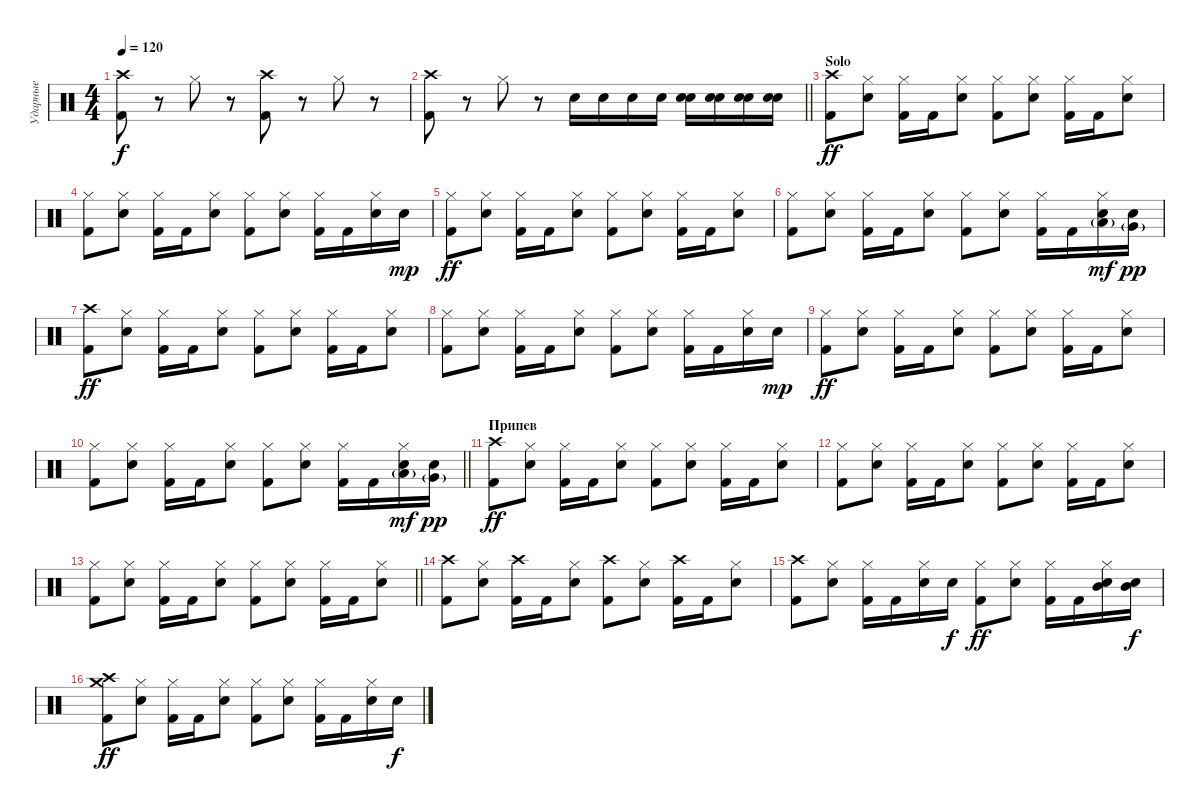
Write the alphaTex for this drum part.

\track ("Ударные" "Ударные") {instrument percussion}
\staff {score}
\articulation defaults
\ts (4 4)
\tempo 120
\clef neutral
\ks c
("Crash high (hit)" "Kick (hit) 2").8{dy f} r.8 "Hi-Hat (closed)".8 r.8 ("Crash high (hit)" "Kick (hit) 2").8 r.8 "Hi-Hat (closed)".8 r.8 |
\barLineRight lightlight
("Kick (hit) 2" "Crash high (hit)").8 r.8 "Hi-Hat (closed)".8 r.8 "Electric Snare (hit)".16 "Electric Snare (hit)".16 "Electric Snare (hit)".16 "Electric Snare (hit)".16 ("Electric Snare (hit)" "Electric Snare (hit)").16 ("Electric Snare (hit)" "Electric Snare (hit)").16 ("Electric Snare (hit)" "Electric Snare (hit)").16 ("Electric Snare (hit)" "Electric Snare (hit)").16 |
\section ("" "Solo")
("Crash high (hit)" "Kick (hit) 2").8{dy ff} ("Hi-Hat (closed)" "Electric Snare (hit)").8 ("Hi-Hat (closed)" "Kick (hit) 2").16 "Kick (hit) 2".16 ("Hi-Hat (closed)" "Electric Snare (hit)").8 ("Hi-Hat (closed)" "Kick (hit) 2").8 ("Hi-Hat (closed)" "Electric Snare (hit)").8 ("Hi-Hat (closed)" "Kick (hit) 2").16 "Kick (hit) 2".16 ("Hi-Hat (closed)" "Electric Snare (hit)").8 |
("Hi-Hat (closed)" "Kick (hit) 2").8 ("Hi-Hat (closed)" "Electric Snare (hit)").8 ("Hi-Hat (closed)" "Kick (hit) 2").16 "Kick (hit) 2".16 ("Hi-Hat (closed)" "Electric Snare (hit)").8 ("Hi-Hat (closed)" "Kick (hit) 2").8 ("Hi-Hat (closed)" "Electric Snare (hit)").8 ("Hi-Hat (closed)" "Kick (hit) 2").16 "Kick (hit) 2".16 ("Hi-Hat (closed)" "Electric Snare (hit)").16 "Electric Snare (hit)".16{dy mp} |
("Hi-Hat (closed)" "Kick (hit) 2").8{dy ff} ("Hi-Hat (closed)" "Electric Snare (hit)").8 ("Hi-Hat (closed)" "Kick (hit) 2").16 "Kick (hit) 2".16 ("Hi-Hat (closed)" "Electric Snare (hit)").8 ("Hi-Hat (closed)" "Kick (hit) 2").8 ("Hi-Hat (closed)" "Electric Snare (hit)").8 ("Hi-Hat (closed)" "Kick (hit) 2").16 "Kick (hit) 2".16 ("Hi-Hat (closed)" "Electric Snare (hit)").8 |
("Hi-Hat (closed)" "Kick (hit) 2").8 ("Hi-Hat (closed)" "Electric Snare (hit)").8 ("Hi-Hat (closed)" "Kick (hit) 2").16 "Kick (hit) 2".16 ("Hi-Hat (closed)" "Electric Snare (hit)").8 ("Hi-Hat (closed)" "Kick (hit) 2").8 ("Hi-Hat (closed)" "Electric Snare (hit)").8 ("Hi-Hat (closed)" "Kick (hit) 2").16 "Kick (hit) 2".16 ("Hi-Hat (closed)" "Electric Snare (hit)" "Low Floor Tom (hit)"{g}).16{dy mf} ("Electric Snare (hit)" "Very Low Tom (hit)"{g}).16{dy pp} |
("Crash high (hit)" "Kick (hit) 2").8{dy ff} ("Hi-Hat (closed)" "Electric Snare (hit)").8 ("Hi-Hat (closed)" "Kick (hit) 2").16 "Kick (hit) 2".16 ("Hi-Hat (closed)" "Electric Snare (hit)").8 ("Hi-Hat (closed)" "Kick (hit) 2").8 ("Hi-Hat (closed)" "Electric Snare (hit)").8 ("Hi-Hat (closed)" "Kick (hit) 2").16 "Kick (hit) 2".16 ("Hi-Hat (closed)" "Electric Snare (hit)").8 |
("Hi-Hat (closed)" "Kick (hit) 2").8 ("Hi-Hat (closed)" "Electric Snare (hit)").8 ("Hi-Hat (closed)" "Kick (hit) 2").16 "Kick (hit) 2".16 ("Hi-Hat (closed)" "Electric Snare (hit)").8 ("Hi-Hat (closed)" "Kick (hit) 2").8 ("Hi-Hat (closed)" "Electric Snare (hit)").8 ("Hi-Hat (closed)" "Kick (hit) 2").16 "Kick (hit) 2".16 ("Hi-Hat (closed)" "Electric Snare (hit)").16 "Electric Snare (hit)".16{dy mp} |
("Hi-Hat (closed)" "Kick (hit) 2").8{dy ff} ("Hi-Hat (closed)" "Electric Snare (hit)").8 ("Hi-Hat (closed)" "Kick (hit) 2").16 "Kick (hit) 2".16 ("Hi-Hat (closed)" "Electric Snare (hit)").8 ("Hi-Hat (closed)" "Kick (hit) 2").8 ("Hi-Hat (closed)" "Electric Snare (hit)").8 ("Hi-Hat (closed)" "Kick (hit) 2").16 "Kick (hit) 2".16 ("Hi-Hat (closed)" "Electric Snare (hit)").8 |
\barLineRight lightlight
("Hi-Hat (closed)" "Kick (hit) 2").8 ("Hi-Hat (closed)" "Electric Snare (hit)").8 ("Hi-Hat (closed)" "Kick (hit) 2").16 "Kick (hit) 2".16 ("Hi-Hat (closed)" "Electric Snare (hit)").8 ("Hi-Hat (closed)" "Kick (hit) 2").8 ("Hi-Hat (closed)" "Electric Snare (hit)").8 ("Hi-Hat (closed)" "Kick (hit) 2").16 "Kick (hit) 2".16 ("Hi-Hat (closed)" "Electric Snare (hit)" "Low Floor Tom (hit)"{g}).16{dy mf} ("Electric Snare (hit)" "Very Low Tom (hit)"{g}).16{dy pp} |
\section ("" "Припев")
("Crash high (hit)" "Kick (hit) 2").8{dy ff} ("Hi-Hat (closed)" "Electric Snare (hit)").8 ("Hi-Hat (closed)" "Kick (hit) 2").16 "Kick (hit) 2".16 ("Hi-Hat (closed)" "Electric Snare (hit)").8 ("Hi-Hat (closed)" "Kick (hit) 2").8 ("Hi-Hat (closed)" "Electric Snare (hit)").8 ("Hi-Hat (closed)" "Kick (hit) 2").16 "Kick (hit) 2".16 ("Hi-Hat (closed)" "Electric Snare (hit)").8 |
("Hi-Hat (closed)" "Kick (hit) 2").8 ("Hi-Hat (closed)" "Electric Snare (hit)").8 ("Hi-Hat (closed)" "Kick (hit) 2").16 "Kick (hit) 2".16 ("Hi-Hat (closed)" "Electric Snare (hit)").8 ("Hi-Hat (closed)" "Kick (hit) 2").8 ("Hi-Hat (closed)" "Electric Snare (hit)").8 ("Hi-Hat (closed)" "Kick (hit) 2").16 "Kick (hit) 2".16 ("Hi-Hat (closed)" "Electric Snare (hit)").8 |
\barLineRight lightlight
("Hi-Hat (closed)" "Kick (hit) 2").8 ("Hi-Hat (closed)" "Electric Snare (hit)").8 ("Hi-Hat (closed)" "Kick (hit) 2").16 "Kick (hit) 2".16 ("Hi-Hat (closed)" "Electric Snare (hit)").8 ("Hi-Hat (closed)" "Kick (hit) 2").8 ("Hi-Hat (closed)" "Electric Snare (hit)").8 ("Hi-Hat (closed)" "Kick (hit) 2").16 "Kick (hit) 2".16 ("Hi-Hat (closed)" "Electric Snare (hit)").8 |
("Crash high (hit)" "Kick (hit) 2").8 ("Hi-Hat (closed)" "Electric Snare (hit)").8 ("Crash high (hit)" "Kick (hit) 2").16 "Kick (hit) 2".16 ("Hi-Hat (closed)" "Electric Snare (hit)").8 ("Crash high (hit)" "Kick (hit) 2").8 ("Hi-Hat (closed)" "Electric Snare (hit)").8 ("Crash high (hit)" "Kick (hit) 2").16 "Kick (hit) 2".16 ("Hi-Hat (closed)" "Electric Snare (hit)").8 |
("Crash high (hit)" "Kick (hit) 2").8 ("Hi-Hat (closed)" "Electric Snare (hit)").8 ("Hi-Hat (closed)" "Kick (hit) 2").16 "Kick (hit) 2".16 ("Hi-Hat (closed)" "Electric Snare (hit)").16 "Electric Snare (hit)".16{dy f} ("Hi-Hat (closed)" "Kick (hit) 2").8{dy ff} ("Hi-Hat (closed)" "Electric Snare (hit)").8 ("Hi-Hat (closed)" "Kick (hit) 2").16 "Kick (hit) 2".16 ("Hi-Hat (closed)" "Electric Snare (hit)" "Mid Tom (hit)").16 ("Electric Snare (hit)" "Mid Tom (hit)").16{dy f} |
("Crash high (hit)" "Crash medium (hit)" "Kick (hit) 2").8{dy ff} ("Hi-Hat (closed)" "Electric Snare (hit)").8 ("Hi-Hat (closed)" "Kick (hit) 2").16 "Kick (hit) 2".16 ("Hi-Hat (closed)" "Electric Snare (hit)").8 ("Hi-Hat (closed)" "Kick (hit) 2").8 ("Hi-Hat (closed)" "Electric Snare (hit)").8 ("Hi-Hat (closed)" "Kick (hit) 2").16 "Kick (hit) 2".16 ("Hi-Hat (closed)" "Electric Snare (hit)").16 "Electric Snare (hit)".16{dy f}
